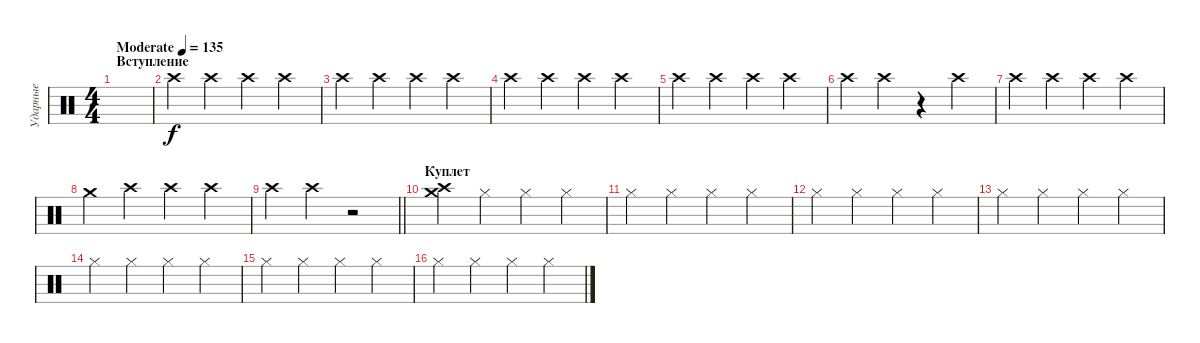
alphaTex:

\track ("Ударные" "Ударные") {instrument percussion}
\staff {score}
\articulation defaults
\ts (4 4)
\section ("" "Вступление")
\tempo (135 "Moderate")
\clef neutral
\ks c
|
"Crash high (hit)".4 "Crash high (hit)".4 "Crash high (hit)".4 "Crash high (hit)".4 |
"Crash high (hit)".4 "Crash high (hit)".4 "Crash high (hit)".4 "Crash high (hit)".4 |
"Crash high (hit)".4 "Crash high (hit)".4 "Crash high (hit)".4 "Crash high (hit)".4 |
"Crash high (hit)".4 "Crash high (hit)".4 "Crash high (hit)".4 "Crash high (hit)".4 |
"Crash high (hit)".4 "Crash high (hit)".4 r.4 "Crash high (hit)".4 |
"Crash high (hit)".4 "Crash high (hit)".4 "Crash high (hit)".4 "Crash high (hit)".4 |
"Crash medium (hit)".4 "Crash high (hit)".4 "Crash high (hit)".4 "Crash high (hit)".4 |
\barLineRight lightlight "Crash high (hit)".4 "Crash high (hit)".4
r.2 |
\section ("" "Куплет")
("Crash high (hit)" "Crash medium (hit)").4 "Hi-Hat (closed)".4 "Hi-Hat (closed)".4 "Hi-Hat (closed)".4 |
"Hi-Hat (closed)".4 "Hi-Hat (closed)".4 "Hi-Hat (closed)".4 "Hi-Hat (closed)".4 |
"Hi-Hat (closed)".4 "Hi-Hat (closed)".4 "Hi-Hat (closed)".4 "Hi-Hat (closed)".4 |
"Hi-Hat (closed)".4 "Hi-Hat (closed)".4 "Hi-Hat (closed)".4 "Hi-Hat (closed)".4 |
"Hi-Hat (closed)".4 "Hi-Hat (closed)".4 "Hi-Hat (closed)".4 "Hi-Hat (closed)".4 |
"Hi-Hat (closed)".4 "Hi-Hat (closed)".4 "Hi-Hat (closed)".4 "Hi-Hat (closed)".4 |
"Hi-Hat (closed)".4 "Hi-Hat (closed)".4 "Hi-Hat (closed)".4 "Hi-Hat (closed)".4
